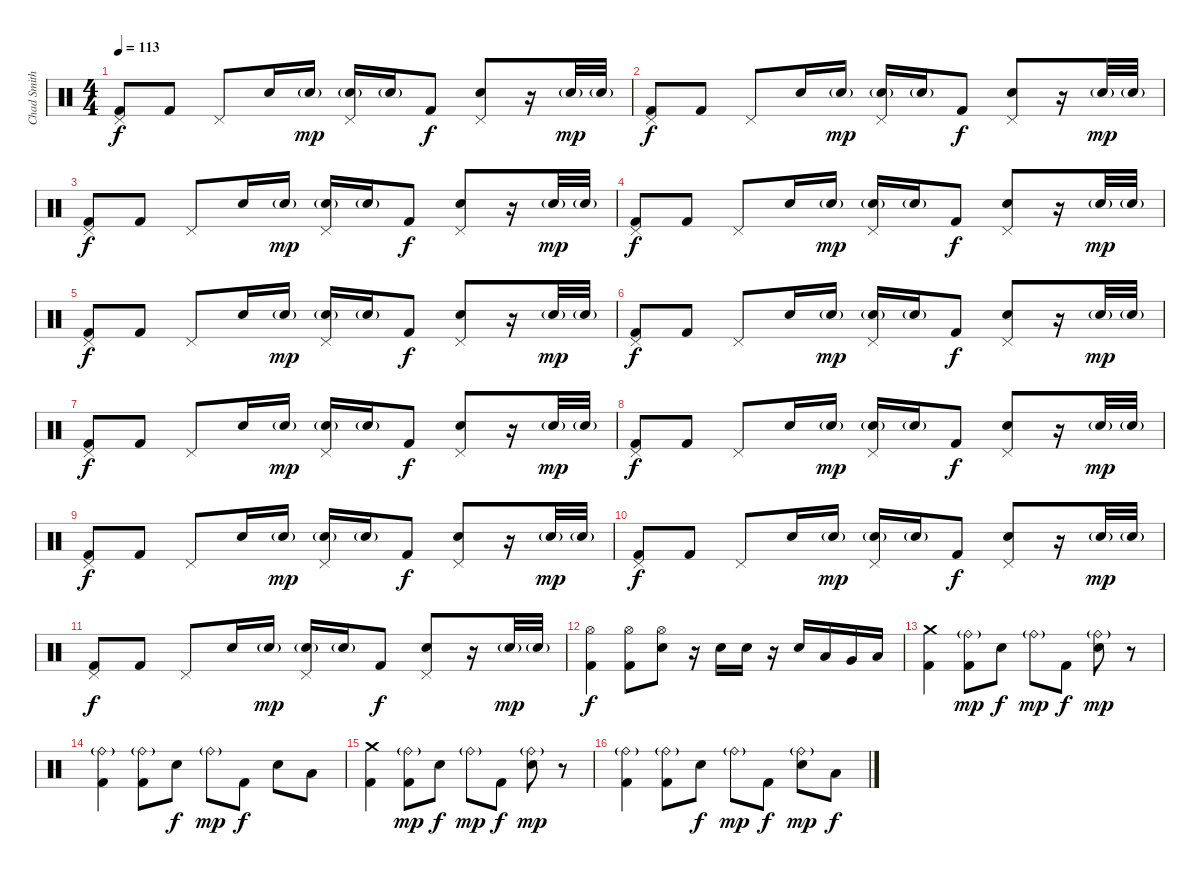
\track ("Chad Smith" "Chad Smith") {instrument percussion}
\staff {score}
\articulation defaults
\ts (4 4)
\tempo 113
\clef neutral
\ks c
("Pedal Hi-Hat (hit)" "Kick (hit) 2").8{dy f} "Kick (hit) 2".8 "Pedal Hi-Hat (hit)".8 "Snare (hit) 2".16 "Snare (hit) 2"{g}.16{dy mp} ("Pedal Hi-Hat (hit)" "Snare (hit) 2"{g}).16 "Snare (hit) 2"{g}.16 "Kick (hit) 2".8{dy f} ("Pedal Hi-Hat (hit)" "Snare (hit) 2").8 r.16 "Snare (hit) 2"{g}.32{dy mp} "Snare (hit) 2"{g}.32 |
("Pedal Hi-Hat (hit)" "Kick (hit) 2").8{dy f} "Kick (hit) 2".8 "Pedal Hi-Hat (hit)".8 "Snare (hit) 2".16 "Snare (hit) 2"{g}.16{dy mp} ("Pedal Hi-Hat (hit)" "Snare (hit) 2"{g}).16 "Snare (hit) 2"{g}.16 "Kick (hit) 2".8{dy f} ("Pedal Hi-Hat (hit)" "Snare (hit) 2").8 r.16 "Snare (hit) 2"{g}.32{dy mp} "Snare (hit) 2"{g}.32 |
("Pedal Hi-Hat (hit)" "Kick (hit) 2").8{dy f} "Kick (hit) 2".8 "Pedal Hi-Hat (hit)".8 "Snare (hit) 2".16 "Snare (hit) 2"{g}.16{dy mp} ("Pedal Hi-Hat (hit)" "Snare (hit) 2"{g}).16 "Snare (hit) 2"{g}.16 "Kick (hit) 2".8{dy f} ("Pedal Hi-Hat (hit)" "Snare (hit) 2").8 r.16 "Snare (hit) 2"{g}.32{dy mp} "Snare (hit) 2"{g}.32 |
("Pedal Hi-Hat (hit)" "Kick (hit) 2").8{dy f} "Kick (hit) 2".8 "Pedal Hi-Hat (hit)".8 "Snare (hit) 2".16 "Snare (hit) 2"{g}.16{dy mp} ("Pedal Hi-Hat (hit)" "Snare (hit) 2"{g}).16 "Snare (hit) 2"{g}.16 "Kick (hit) 2".8{dy f} ("Pedal Hi-Hat (hit)" "Snare (hit) 2").8 r.16 "Snare (hit) 2"{g}.32{dy mp} "Snare (hit) 2"{g}.32 |
("Pedal Hi-Hat (hit)" "Kick (hit) 2").8{dy f} "Kick (hit) 2".8 "Pedal Hi-Hat (hit)".8 "Snare (hit) 2".16 "Snare (hit) 2"{g}.16{dy mp} ("Pedal Hi-Hat (hit)" "Snare (hit) 2"{g}).16 "Snare (hit) 2"{g}.16 "Kick (hit) 2".8{dy f} ("Pedal Hi-Hat (hit)" "Snare (hit) 2").8 r.16 "Snare (hit) 2"{g}.32{dy mp} "Snare (hit) 2"{g}.32 |
("Pedal Hi-Hat (hit)" "Kick (hit) 2").8{dy f} "Kick (hit) 2".8 "Pedal Hi-Hat (hit)".8 "Snare (hit) 2".16 "Snare (hit) 2"{g}.16{dy mp} ("Pedal Hi-Hat (hit)" "Snare (hit) 2"{g}).16 "Snare (hit) 2"{g}.16 "Kick (hit) 2".8{dy f} ("Pedal Hi-Hat (hit)" "Snare (hit) 2").8 r.16 "Snare (hit) 2"{g}.32{dy mp} "Snare (hit) 2"{g}.32 |
("Pedal Hi-Hat (hit)" "Kick (hit) 2").8{dy f} "Kick (hit) 2".8 "Pedal Hi-Hat (hit)".8 "Snare (hit) 2".16 "Snare (hit) 2"{g}.16{dy mp} ("Pedal Hi-Hat (hit)" "Snare (hit) 2"{g}).16 "Snare (hit) 2"{g}.16 "Kick (hit) 2".8{dy f} ("Pedal Hi-Hat (hit)" "Snare (hit) 2").8 r.16 "Snare (hit) 2"{g}.32{dy mp} "Snare (hit) 2"{g}.32 |
("Pedal Hi-Hat (hit)" "Kick (hit) 2").8{dy f} "Kick (hit) 2".8 "Pedal Hi-Hat (hit)".8 "Snare (hit) 2".16 "Snare (hit) 2"{g}.16{dy mp} ("Pedal Hi-Hat (hit)" "Snare (hit) 2"{g}).16 "Snare (hit) 2"{g}.16 "Kick (hit) 2".8{dy f} ("Pedal Hi-Hat (hit)" "Snare (hit) 2").8 r.16 "Snare (hit) 2"{g}.32{dy mp} "Snare (hit) 2"{g}.32 |
("Pedal Hi-Hat (hit)" "Kick (hit) 2").8{dy f} "Kick (hit) 2".8 "Pedal Hi-Hat (hit)".8 "Snare (hit) 2".16 "Snare (hit) 2"{g}.16{dy mp} ("Pedal Hi-Hat (hit)" "Snare (hit) 2"{g}).16 "Snare (hit) 2"{g}.16 "Kick (hit) 2".8{dy f} ("Pedal Hi-Hat (hit)" "Snare (hit) 2").8 r.16 "Snare (hit) 2"{g}.32{dy mp} "Snare (hit) 2"{g}.32 |
("Pedal Hi-Hat (hit)" "Kick (hit) 2").8{dy f} "Kick (hit) 2".8 "Pedal Hi-Hat (hit)".8 "Snare (hit) 2".16 "Snare (hit) 2"{g}.16{dy mp} ("Pedal Hi-Hat (hit)" "Snare (hit) 2"{g}).16 "Snare (hit) 2"{g}.16 "Kick (hit) 2".8{dy f} ("Pedal Hi-Hat (hit)" "Snare (hit) 2").8 r.16 "Snare (hit) 2"{g}.32{dy mp} "Snare (hit) 2"{g}.32 |
("Pedal Hi-Hat (hit)" "Kick (hit) 2").8{dy f} "Kick (hit) 2".8 "Pedal Hi-Hat (hit)".8 "Snare (hit) 2".16 "Snare (hit) 2"{g}.16{dy mp} ("Pedal Hi-Hat (hit)" "Snare (hit) 2"{g}).16 "Snare (hit) 2"{g}.16 "Kick (hit) 2".8{dy f} ("Pedal Hi-Hat (hit)" "Snare (hit) 2").8 r.16 "Snare (hit) 2"{g}.32{dy mp} "Snare (hit) 2"{g}.32 |
("Hi-Hat (open)" "Kick (hit) 2").4{dy f} ("Hi-Hat (open)" "Kick (hit) 2").8 ("Hi-Hat (open)" "Snare (hit) 2").8 r.16 "Snare (hit) 2".16 "Snare (hit) 2".16 r.16 "Snare (hit) 2".16 "Low Tom (hit)".16 "Very Low Tom (hit)".16 "Low Floor Tom (hit)".16 |
("Crash medium (hit)" "Kick (hit) 2").4 ("Ride (bell)"{g} "Kick (hit) 2").8{dy mp} "Snare (hit) 2".8{dy f} "Ride (bell)"{g}.8{dy mp} "Kick (hit) 2".8{dy f} ("Ride (bell)"{g} "Snare (hit) 2").8{dy mp} r.8 |
("Ride (bell)"{g} "Kick (hit) 2").4 ("Ride (bell)"{g} "Kick (hit) 2").8 "Snare (hit) 2".8{dy f} "Ride (bell)"{g}.8{dy mp} "Kick (hit) 2".8{dy f} "Snare (hit) 2".8 "Low Floor Tom (hit)".8 |
("Crash medium (hit)" "Kick (hit) 2").4 ("Ride (bell)"{g} "Kick (hit) 2").8{dy mp} "Snare (hit) 2".8{dy f} "Ride (bell)"{g}.8{dy mp} "Kick (hit) 2".8{dy f} ("Ride (bell)"{g} "Snare (hit) 2").8{dy mp} r.8 |
("Ride (bell)"{g} "Kick (hit) 2").4 ("Ride (bell)"{g} "Kick (hit) 2").8 "Snare (hit) 2".8{dy f} "Ride (bell)"{g}.8{dy mp} "Kick (hit) 2".8{dy f} ("Ride (bell)"{g} "Snare (hit) 2").8{dy mp} "Low Floor Tom (hit)".8{dy f}
